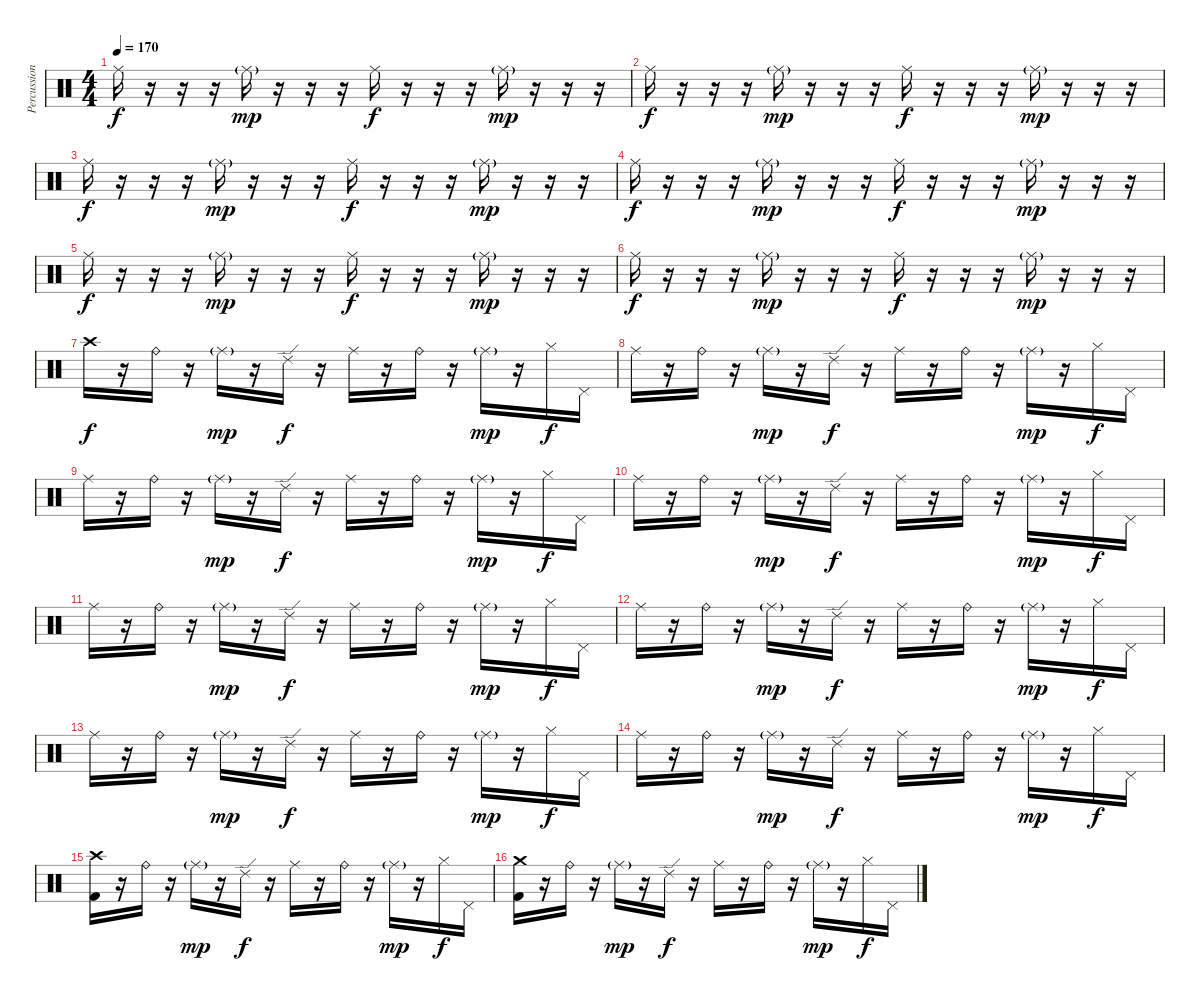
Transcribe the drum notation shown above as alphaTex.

\track ("Percussion" "Percussion") {instrument percussion}
\staff {score}
\articulation defaults
\ts (4 4)
\tempo 170
\clef neutral
\ks c "Ride (middle)".16{dy f}
r.16 r.16 r.16 "Ride (middle)"{g}.16{dy mp} r.16 r.16 r.16 "Ride (middle)".16{dy f} r.16 r.16 r.16 "Ride (middle)"{g}.16{dy mp} r.16 r.16 r.16 |
"Ride (middle)".16{dy f} r.16 r.16 r.16 "Ride (middle)"{g}.16{dy mp} r.16 r.16 r.16 "Ride (middle)".16{dy f} r.16 r.16 r.16 "Ride (middle)"{g}.16{dy mp} r.16 r.16 r.16 |
"Ride (middle)".16{dy f} r.16 r.16 r.16 "Ride (middle)"{g}.16{dy mp} r.16 r.16 r.16 "Ride (middle)".16{dy f} r.16 r.16 r.16 "Ride (middle)"{g}.16{dy mp} r.16 r.16 r.16 |
"Ride (middle)".16{dy f} r.16 r.16 r.16 "Ride (middle)"{g}.16{dy mp} r.16 r.16 r.16 "Ride (middle)".16{dy f} r.16 r.16 r.16 "Ride (middle)"{g}.16{dy mp} r.16 r.16 r.16 |
"Ride (middle)".16{dy f} r.16 r.16 r.16 "Ride (middle)"{g}.16{dy mp} r.16 r.16 r.16 "Ride (middle)".16{dy f} r.16 r.16 r.16 "Ride (middle)"{g}.16{dy mp} r.16 r.16 r.16 |
"Ride (middle)".16{dy f} r.16 r.16 r.16 "Ride (middle)"{g}.16{dy mp} r.16 r.16 r.16 "Ride (middle)".16{dy f} r.16 r.16 r.16 "Ride (middle)"{g}.16{dy mp} r.16 r.16 r.16 |
"Crash high (hit)".16{dy f} r.16 "Ride (bell)".16 r.16 "Ride (middle)"{g}.16{dy mp} r.16 "Ride (edge) 2".16{dy f} r.16 "Ride (middle)".16 r.16 "Ride (bell)".16 r.16 "Ride (middle)"{g}.16{dy mp} r.16 "Hi-Hat (closed)".16{dy f} "Pedal Hi-Hat (hit)".16 |
"Ride (middle)".16 r.16 "Ride (bell)".16 r.16 "Ride (middle)"{g}.16{dy mp} r.16 "Ride (edge) 2".16{dy f} r.16 "Ride (middle)".16 r.16 "Ride (bell)".16 r.16 "Ride (middle)"{g}.16{dy mp} r.16 "Hi-Hat (closed)".16{dy f} "Pedal Hi-Hat (hit)".16 |
"Ride (middle)".16 r.16 "Ride (bell)".16 r.16 "Ride (middle)"{g}.16{dy mp} r.16 "Ride (edge) 2".16{dy f} r.16 "Ride (middle)".16 r.16 "Ride (bell)".16 r.16 "Ride (middle)"{g}.16{dy mp} r.16 "Hi-Hat (closed)".16{dy f} "Pedal Hi-Hat (hit)".16 |
"Ride (middle)".16 r.16 "Ride (bell)".16 r.16 "Ride (middle)"{g}.16{dy mp} r.16 "Ride (edge) 2".16{dy f} r.16 "Ride (middle)".16 r.16 "Ride (bell)".16 r.16 "Ride (middle)"{g}.16{dy mp} r.16 "Hi-Hat (closed)".16{dy f} "Pedal Hi-Hat (hit)".16 |
"Ride (middle)".16 r.16 "Ride (bell)".16 r.16 "Ride (middle)"{g}.16{dy mp} r.16 "Ride (edge) 2".16{dy f} r.16 "Ride (middle)".16 r.16 "Ride (bell)".16 r.16 "Ride (middle)"{g}.16{dy mp} r.16 "Hi-Hat (closed)".16{dy f} "Pedal Hi-Hat (hit)".16 |
"Ride (middle)".16 r.16 "Ride (bell)".16 r.16 "Ride (middle)"{g}.16{dy mp} r.16 "Ride (edge) 2".16{dy f} r.16 "Ride (middle)".16 r.16 "Ride (bell)".16 r.16 "Ride (middle)"{g}.16{dy mp} r.16 "Hi-Hat (closed)".16{dy f} "Pedal Hi-Hat (hit)".16 |
"Ride (middle)".16 r.16 "Ride (bell)".16 r.16 "Ride (middle)"{g}.16{dy mp} r.16 "Ride (edge) 2".16{dy f} r.16 "Ride (middle)".16 r.16 "Ride (bell)".16 r.16 "Ride (middle)"{g}.16{dy mp} r.16 "Hi-Hat (closed)".16{dy f} "Pedal Hi-Hat (hit)".16 |
"Ride (middle)".16 r.16 "Ride (bell)".16 r.16 "Ride (middle)"{g}.16{dy mp} r.16 "Ride (edge) 2".16{dy f} r.16 "Ride (middle)".16 r.16 "Ride (bell)".16 r.16 "Ride (middle)"{g}.16{dy mp} r.16 "Hi-Hat (closed)".16{dy f} "Pedal Hi-Hat (hit)".16 |
("Crash high (hit)" "Kick (hit) 2").16 r.16 "Ride (bell)".16 r.16 "Ride (middle)"{g}.16{dy mp} r.16 "Ride (edge) 2".16{dy f} r.16 "Ride (middle)".16 r.16 "Ride (bell)".16 r.16 "Ride (middle)"{g}.16{dy mp} r.16 "Hi-Hat (closed)".16{dy f} "Pedal Hi-Hat (hit)".16 |
("Crash medium (hit)" "Kick (hit) 2").16 r.16 "Ride (bell)".16 r.16 "Ride (middle)"{g}.16{dy mp} r.16 "Ride (edge) 2".16{dy f} r.16 "Ride (middle)".16 r.16 "Ride (bell)".16 r.16 "Ride (middle)"{g}.16{dy mp} r.16 "Hi-Hat (closed)".16{dy f} "Pedal Hi-Hat (hit)".16
